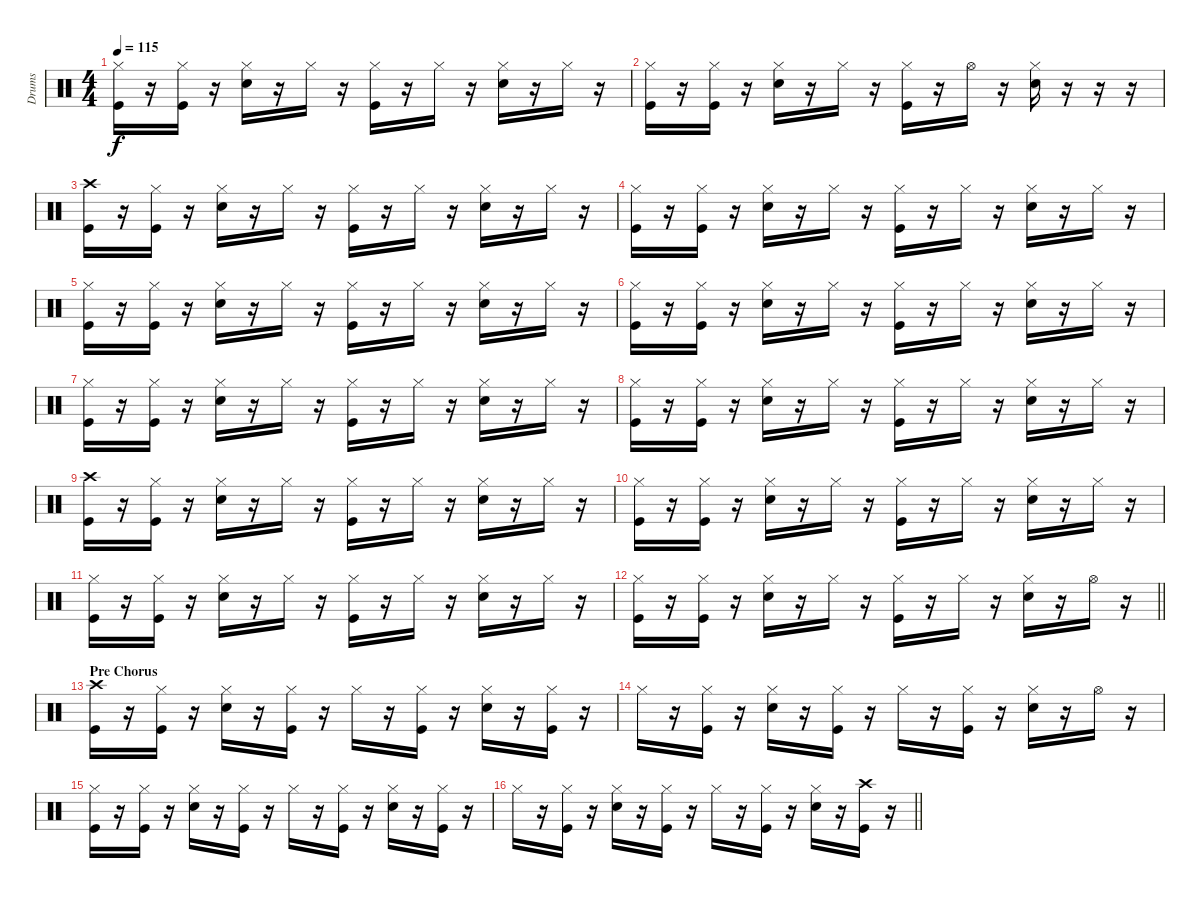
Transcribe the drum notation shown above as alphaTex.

\track ("Drums" "Drums") {instrument percussion}
\staff {score}
\articulation defaults
\ts (4 4)
\tempo 115
\clef neutral
\ks c
("Hi-Hat (closed)" "Kick (hit)").16{dy f} r.16 ("Hi-Hat (closed)" "Kick (hit)").16 r.16 ("Hi-Hat (closed)" "Snare (hit) 2").16 r.16 "Hi-Hat (closed)".16 r.16 ("Hi-Hat (closed)" "Kick (hit)").16 r.16 "Hi-Hat (closed)".16 r.16 ("Hi-Hat (closed)" "Snare (hit) 2").16 r.16 "Hi-Hat (closed)".16 r.16 |
("Hi-Hat (closed)" "Kick (hit)").16 r.16 ("Hi-Hat (closed)" "Kick (hit)").16 r.16 ("Hi-Hat (closed)" "Snare (hit) 2").16 r.16 "Hi-Hat (closed)".16 r.16 ("Hi-Hat (closed)" "Kick (hit)").16 r.16 "Hi-Hat (open)".16 r.16 ("Hi-Hat (closed)" "Snare (hit) 2").16 r.16 r.16 r.16 |
("Crash high (hit)" "Kick (hit)").16 r.16 ("Hi-Hat (closed)" "Kick (hit)").16 r.16 ("Hi-Hat (closed)" "Snare (hit) 2").16 r.16 "Hi-Hat (closed)".16 r.16 ("Hi-Hat (closed)" "Kick (hit)").16 r.16 "Hi-Hat (closed)".16 r.16 ("Hi-Hat (closed)" "Snare (hit) 2").16 r.16 "Hi-Hat (closed)".16 r.16 |
("Hi-Hat (closed)" "Kick (hit)").16 r.16 ("Hi-Hat (closed)" "Kick (hit)").16 r.16 ("Hi-Hat (closed)" "Snare (hit) 2").16 r.16 "Hi-Hat (closed)".16 r.16 ("Hi-Hat (closed)" "Kick (hit)").16 r.16 "Hi-Hat (closed)".16 r.16 ("Hi-Hat (closed)" "Snare (hit) 2").16 r.16 "Hi-Hat (closed)".16 r.16 |
("Hi-Hat (closed)" "Kick (hit)").16 r.16 ("Hi-Hat (closed)" "Kick (hit)").16 r.16 ("Hi-Hat (closed)" "Snare (hit) 2").16 r.16 "Hi-Hat (closed)".16 r.16 ("Hi-Hat (closed)" "Kick (hit)").16 r.16 "Hi-Hat (closed)".16 r.16 ("Hi-Hat (closed)" "Snare (hit) 2").16 r.16 "Hi-Hat (closed)".16 r.16 |
("Hi-Hat (closed)" "Kick (hit)").16 r.16 ("Hi-Hat (closed)" "Kick (hit)").16 r.16 ("Hi-Hat (closed)" "Snare (hit) 2").16 r.16 "Hi-Hat (closed)".16 r.16 ("Hi-Hat (closed)" "Kick (hit)").16 r.16 "Hi-Hat (closed)".16 r.16 ("Hi-Hat (closed)" "Snare (hit) 2").16 r.16 "Hi-Hat (closed)".16 r.16 |
("Hi-Hat (closed)" "Kick (hit)").16 r.16 ("Hi-Hat (closed)" "Kick (hit)").16 r.16 ("Hi-Hat (closed)" "Snare (hit) 2").16 r.16 "Hi-Hat (closed)".16 r.16 ("Hi-Hat (closed)" "Kick (hit)").16 r.16 "Hi-Hat (closed)".16 r.16 ("Hi-Hat (closed)" "Snare (hit) 2").16 r.16 "Hi-Hat (closed)".16 r.16 |
("Hi-Hat (closed)" "Kick (hit)").16 r.16 ("Hi-Hat (closed)" "Kick (hit)").16 r.16 ("Hi-Hat (closed)" "Snare (hit) 2").16 r.16 "Hi-Hat (closed)".16 r.16 ("Hi-Hat (closed)" "Kick (hit)").16 r.16 "Hi-Hat (closed)".16 r.16 ("Hi-Hat (closed)" "Snare (hit) 2").16 r.16 "Hi-Hat (closed)".16 r.16 |
("Crash high (hit)" "Kick (hit)").16 r.16 ("Hi-Hat (closed)" "Kick (hit)").16 r.16 ("Hi-Hat (closed)" "Snare (hit) 2").16 r.16 "Hi-Hat (closed)".16 r.16 ("Hi-Hat (closed)" "Kick (hit)").16 r.16 "Hi-Hat (closed)".16 r.16 ("Hi-Hat (closed)" "Snare (hit) 2").16 r.16 "Hi-Hat (closed)".16 r.16 |
("Hi-Hat (closed)" "Kick (hit)").16 r.16 ("Hi-Hat (closed)" "Kick (hit)").16 r.16 ("Hi-Hat (closed)" "Snare (hit) 2").16 r.16 "Hi-Hat (closed)".16 r.16 ("Hi-Hat (closed)" "Kick (hit)").16 r.16 "Hi-Hat (closed)".16 r.16 ("Hi-Hat (closed)" "Snare (hit) 2").16 r.16 "Hi-Hat (closed)".16 r.16 |
("Hi-Hat (closed)" "Kick (hit)").16 r.16 ("Hi-Hat (closed)" "Kick (hit)").16 r.16 ("Hi-Hat (closed)" "Snare (hit) 2").16 r.16 "Hi-Hat (closed)".16 r.16 ("Hi-Hat (closed)" "Kick (hit)").16 r.16 "Hi-Hat (closed)".16 r.16 ("Hi-Hat (closed)" "Snare (hit) 2").16 r.16 "Hi-Hat (closed)".16 r.16 |
\barLineRight lightlight
("Hi-Hat (closed)" "Kick (hit)").16 r.16 ("Hi-Hat (closed)" "Kick (hit)").16 r.16 ("Hi-Hat (closed)" "Snare (hit) 2").16 r.16 "Hi-Hat (closed)".16 r.16 ("Hi-Hat (closed)" "Kick (hit)").16 r.16 "Hi-Hat (closed)".16 r.16 ("Hi-Hat (closed)" "Snare (hit) 2").16 r.16 "Hi-Hat (open)".16 r.16 |
\section ("" "Pre Chorus")
("Crash high (hit)" "Kick (hit)").16 r.16 ("Hi-Hat (closed)" "Kick (hit)").16 r.16 ("Hi-Hat (closed)" "Snare (hit) 2").16 r.16 ("Hi-Hat (closed)" "Kick (hit)").16 r.16 "Hi-Hat (closed)".16 r.16 ("Hi-Hat (closed)" "Kick (hit)").16 r.16 ("Hi-Hat (closed)" "Snare (hit) 2").16 r.16 ("Hi-Hat (closed)" "Kick (hit)").16 r.16 |
"Hi-Hat (closed)".16 r.16 ("Hi-Hat (closed)" "Kick (hit)").16 r.16 ("Hi-Hat (closed)" "Snare (hit) 2").16 r.16 ("Hi-Hat (closed)" "Kick (hit)").16 r.16 "Hi-Hat (closed)".16 r.16 ("Hi-Hat (closed)" "Kick (hit)").16 r.16 ("Hi-Hat (closed)" "Snare (hit) 2").16 r.16 "Hi-Hat (open)".16 r.16 |
("Hi-Hat (closed)" "Kick (hit)").16 r.16 ("Hi-Hat (closed)" "Kick (hit)").16 r.16 ("Hi-Hat (closed)" "Snare (hit) 2").16 r.16 ("Hi-Hat (closed)" "Kick (hit)").16 r.16 "Hi-Hat (closed)".16 r.16 ("Hi-Hat (closed)" "Kick (hit)").16 r.16 ("Hi-Hat (closed)" "Snare (hit) 2").16 r.16 ("Hi-Hat (closed)" "Kick (hit)").16 r.16 |
\barLineRight lightlight "Hi-Hat (closed)".16
r.16 ("Hi-Hat (closed)" "Kick (hit)").16 r.16 ("Hi-Hat (closed)" "Snare (hit) 2").16 r.16 ("Hi-Hat (closed)" "Kick (hit)").16 r.16 "Hi-Hat (closed)".16 r.16 ("Hi-Hat (closed)" "Kick (hit)").16 r.16 ("Hi-Hat (closed)" "Snare (hit) 2").16 r.16 ("Crash high (hit)" "Kick (hit)").16 r.16
